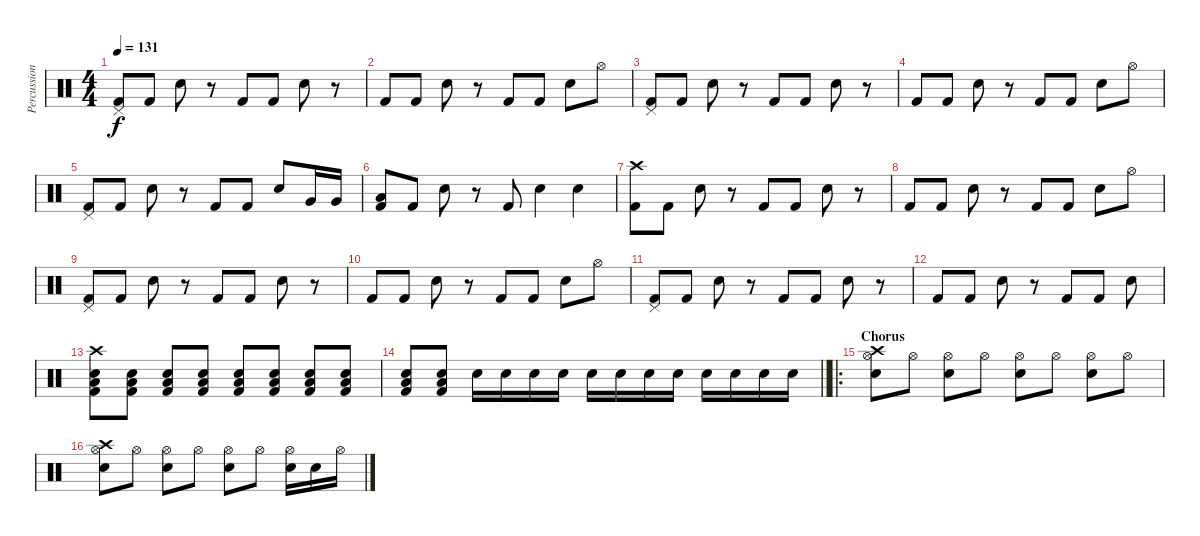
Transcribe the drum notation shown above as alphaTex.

\track ("Percussion" "Percussion") {instrument percussion}
\staff {score}
\articulation defaults
\ts (4 4)
\tempo 131
\clef neutral
\ks c
("Pedal Hi-Hat (hit)" "Kick (hit) 2").8{dy f} "Kick (hit) 2".8 "Electric Snare (hit)".8 r.8 "Kick (hit) 2".8 "Kick (hit) 2".8 "Electric Snare (hit)".8 r.8 |
"Kick (hit) 2".8 "Kick (hit) 2".8 "Electric Snare (hit)".8 r.8 "Kick (hit) 2".8 "Kick (hit) 2".8 "Electric Snare (hit)".8 "Hi-Hat (open)".8 |
("Pedal Hi-Hat (hit)" "Kick (hit) 2").8 "Kick (hit) 2".8 "Electric Snare (hit)".8 r.8 "Kick (hit) 2".8 "Kick (hit) 2".8 "Electric Snare (hit)".8 r.8 |
"Kick (hit) 2".8 "Kick (hit) 2".8 "Electric Snare (hit)".8 r.8 "Kick (hit) 2".8 "Kick (hit) 2".8 "Electric Snare (hit)".8 "Hi-Hat (open)".8 |
("Pedal Hi-Hat (hit)" "Kick (hit) 2").8 "Kick (hit) 2".8 "Electric Snare (hit)".8 r.8 "Kick (hit) 2".8 "Kick (hit) 2".8 "Electric Snare (hit)".8 "Very Low Tom (hit)".16 "Very Low Tom (hit)".16 |
("Low Floor Tom (hit)" "Kick (hit) 2").8 "Kick (hit) 2".8 "Electric Snare (hit)".8 r.8 "Kick (hit) 2".8 "Electric Snare (hit)".4 "Electric Snare (hit)".4 |
("Crash high (hit)" "Kick (hit) 2").8 "Kick (hit) 2".8 "Electric Snare (hit)".8 r.8 "Kick (hit) 2".8 "Kick (hit) 2".8 "Electric Snare (hit)".8 r.8 |
"Kick (hit) 2".8 "Kick (hit) 2".8 "Electric Snare (hit)".8 r.8 "Kick (hit) 2".8 "Kick (hit) 2".8 "Electric Snare (hit)".8 "Hi-Hat (open)".8 |
("Pedal Hi-Hat (hit)" "Kick (hit) 2").8 "Kick (hit) 2".8 "Electric Snare (hit)".8 r.8 "Kick (hit) 2".8 "Kick (hit) 2".8 "Electric Snare (hit)".8 r.8 |
"Kick (hit) 2".8 "Kick (hit) 2".8 "Electric Snare (hit)".8 r.8 "Kick (hit) 2".8 "Kick (hit) 2".8 "Electric Snare (hit)".8 "Hi-Hat (open)".8 |
("Pedal Hi-Hat (hit)" "Kick (hit) 2").8 "Kick (hit) 2".8 "Electric Snare (hit)".8 r.8 "Kick (hit) 2".8 "Kick (hit) 2".8 "Electric Snare (hit)".8 r.8 |
"Kick (hit) 2".8 "Kick (hit) 2".8 "Electric Snare (hit)".8 r.8 "Kick (hit) 2".8 "Kick (hit) 2".8 "Electric Snare (hit)".8 |
("Crash high (hit)" "Low Floor Tom (hit)" "Electric Snare (hit)" "Kick (hit) 2").8 ("Low Floor Tom (hit)" "Electric Snare (hit)" "Kick (hit) 2").8 ("Low Floor Tom (hit)" "Electric Snare (hit)" "Kick (hit) 2").8 ("Low Floor Tom (hit)" "Electric Snare (hit)" "Kick (hit) 2").8 ("Low Floor Tom (hit)" "Electric Snare (hit)" "Kick (hit) 2").8 ("Low Floor Tom (hit)" "Electric Snare (hit)" "Kick (hit) 2").8 ("Low Floor Tom (hit)" "Electric Snare (hit)" "Kick (hit) 2").8 ("Low Floor Tom (hit)" "Electric Snare (hit)" "Kick (hit) 2").8 |
\barLineRight lightlight
("Low Floor Tom (hit)" "Electric Snare (hit)" "Kick (hit) 2").8 ("Low Floor Tom (hit)" "Electric Snare (hit)" "Kick (hit) 2").8 "Electric Snare (hit)".16 "Electric Snare (hit)".16 "Electric Snare (hit)".16 "Electric Snare (hit)".16 "Electric Snare (hit)".16 "Electric Snare (hit)".16 "Electric Snare (hit)".16 "Electric Snare (hit)".16 "Electric Snare (hit)".16 "Electric Snare (hit)".16 "Electric Snare (hit)".16 "Electric Snare (hit)".16 |
\ro
\section ("" "Chorus")
("Hi-Hat (open)" "Electric Snare (hit)" "Crash high (hit)").8 "Hi-Hat (open)".8 ("Hi-Hat (open)" "Electric Snare (hit)").8 "Hi-Hat (open)".8 ("Hi-Hat (open)" "Electric Snare (hit)").8 "Hi-Hat (open)".8 ("Hi-Hat (open)" "Electric Snare (hit)").8 "Hi-Hat (open)".8 |
("Hi-Hat (open)" "Electric Snare (hit)" "Crash high (hit)").8 "Hi-Hat (open)".8 ("Hi-Hat (open)" "Electric Snare (hit)").8 "Hi-Hat (open)".8 ("Hi-Hat (open)" "Electric Snare (hit)").8 "Hi-Hat (open)".8 ("Hi-Hat (open)" "Electric Snare (hit)").16 "Electric Snare (hit)".16 "Hi-Hat (open)".16
